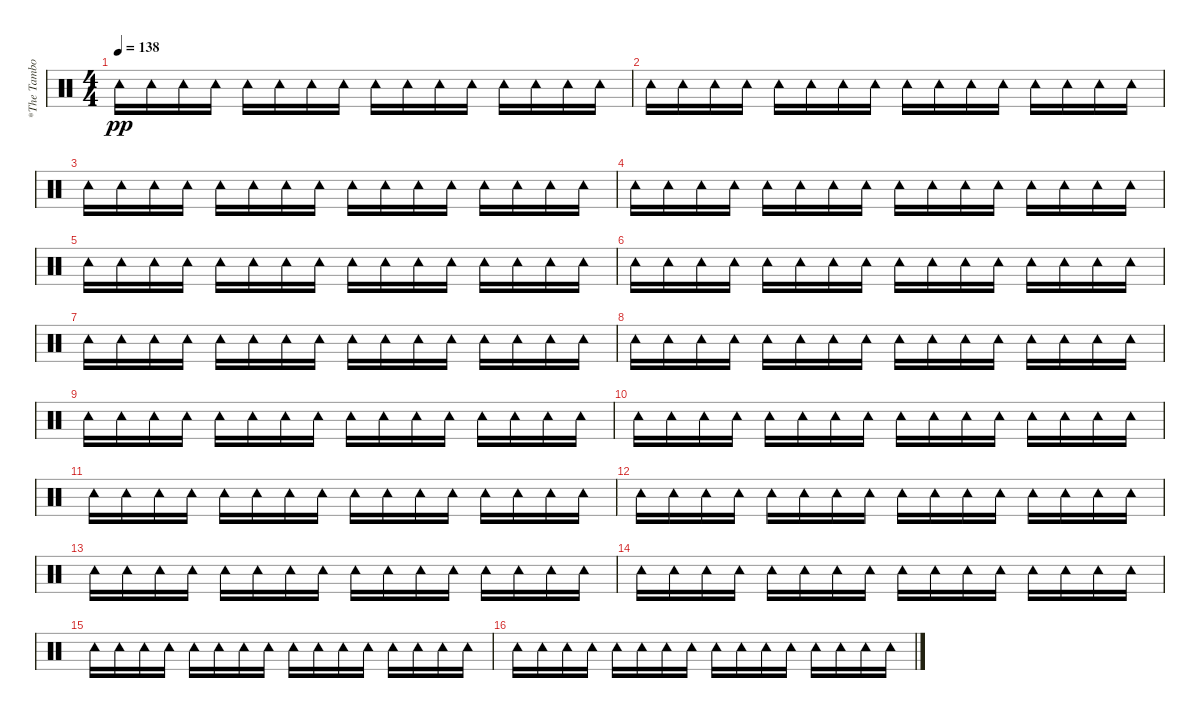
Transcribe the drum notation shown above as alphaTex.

\track ("*The Tambourine" "*The Tambo") {instrument percussion}
\staff {score}
\articulation defaults
\ts (4 4)
\tempo 138
\clef neutral
\ks c "Tambourine (hit)".16{dy pp} "Tambourine (hit)".16 "Tambourine (hit)".16 "Tambourine (hit)".16 "Tambourine (hit)".16 "Tambourine (hit)".16 "Tambourine (hit)".16 "Tambourine (hit)".16 "Tambourine (hit)".16 "Tambourine (hit)".16 "Tambourine (hit)".16 "Tambourine (hit)".16 "Tambourine (hit)".16 "Tambourine (hit)".16 "Tambourine (hit)".16 "Tambourine (hit)".16
|
"Tambourine (hit)".16 "Tambourine (hit)".16 "Tambourine (hit)".16 "Tambourine (hit)".16 "Tambourine (hit)".16 "Tambourine (hit)".16 "Tambourine (hit)".16 "Tambourine (hit)".16 "Tambourine (hit)".16 "Tambourine (hit)".16 "Tambourine (hit)".16 "Tambourine (hit)".16 "Tambourine (hit)".16 "Tambourine (hit)".16 "Tambourine (hit)".16 "Tambourine (hit)".16 |
"Tambourine (hit)".16 "Tambourine (hit)".16 "Tambourine (hit)".16 "Tambourine (hit)".16 "Tambourine (hit)".16 "Tambourine (hit)".16 "Tambourine (hit)".16 "Tambourine (hit)".16 "Tambourine (hit)".16 "Tambourine (hit)".16 "Tambourine (hit)".16 "Tambourine (hit)".16 "Tambourine (hit)".16 "Tambourine (hit)".16 "Tambourine (hit)".16 "Tambourine (hit)".16 |
"Tambourine (hit)".16 "Tambourine (hit)".16 "Tambourine (hit)".16 "Tambourine (hit)".16 "Tambourine (hit)".16 "Tambourine (hit)".16 "Tambourine (hit)".16 "Tambourine (hit)".16 "Tambourine (hit)".16 "Tambourine (hit)".16 "Tambourine (hit)".16 "Tambourine (hit)".16 "Tambourine (hit)".16 "Tambourine (hit)".16 "Tambourine (hit)".16 "Tambourine (hit)".16 |
"Tambourine (hit)".16 "Tambourine (hit)".16 "Tambourine (hit)".16 "Tambourine (hit)".16 "Tambourine (hit)".16 "Tambourine (hit)".16 "Tambourine (hit)".16 "Tambourine (hit)".16 "Tambourine (hit)".16 "Tambourine (hit)".16 "Tambourine (hit)".16 "Tambourine (hit)".16 "Tambourine (hit)".16 "Tambourine (hit)".16 "Tambourine (hit)".16 "Tambourine (hit)".16 |
"Tambourine (hit)".16 "Tambourine (hit)".16 "Tambourine (hit)".16 "Tambourine (hit)".16 "Tambourine (hit)".16 "Tambourine (hit)".16 "Tambourine (hit)".16 "Tambourine (hit)".16 "Tambourine (hit)".16 "Tambourine (hit)".16 "Tambourine (hit)".16 "Tambourine (hit)".16 "Tambourine (hit)".16 "Tambourine (hit)".16 "Tambourine (hit)".16 "Tambourine (hit)".16 |
"Tambourine (hit)".16 "Tambourine (hit)".16 "Tambourine (hit)".16 "Tambourine (hit)".16 "Tambourine (hit)".16 "Tambourine (hit)".16 "Tambourine (hit)".16 "Tambourine (hit)".16 "Tambourine (hit)".16 "Tambourine (hit)".16 "Tambourine (hit)".16 "Tambourine (hit)".16 "Tambourine (hit)".16 "Tambourine (hit)".16 "Tambourine (hit)".16 "Tambourine (hit)".16 |
"Tambourine (hit)".16 "Tambourine (hit)".16 "Tambourine (hit)".16 "Tambourine (hit)".16 "Tambourine (hit)".16 "Tambourine (hit)".16 "Tambourine (hit)".16 "Tambourine (hit)".16 "Tambourine (hit)".16 "Tambourine (hit)".16 "Tambourine (hit)".16 "Tambourine (hit)".16 "Tambourine (hit)".16 "Tambourine (hit)".16 "Tambourine (hit)".16 "Tambourine (hit)".16 |
"Tambourine (hit)".16 "Tambourine (hit)".16 "Tambourine (hit)".16 "Tambourine (hit)".16 "Tambourine (hit)".16 "Tambourine (hit)".16 "Tambourine (hit)".16 "Tambourine (hit)".16 "Tambourine (hit)".16 "Tambourine (hit)".16 "Tambourine (hit)".16 "Tambourine (hit)".16 "Tambourine (hit)".16 "Tambourine (hit)".16 "Tambourine (hit)".16 "Tambourine (hit)".16 |
"Tambourine (hit)".16 "Tambourine (hit)".16 "Tambourine (hit)".16 "Tambourine (hit)".16 "Tambourine (hit)".16 "Tambourine (hit)".16 "Tambourine (hit)".16 "Tambourine (hit)".16 "Tambourine (hit)".16 "Tambourine (hit)".16 "Tambourine (hit)".16 "Tambourine (hit)".16 "Tambourine (hit)".16 "Tambourine (hit)".16 "Tambourine (hit)".16 "Tambourine (hit)".16 |
"Tambourine (hit)".16 "Tambourine (hit)".16 "Tambourine (hit)".16 "Tambourine (hit)".16 "Tambourine (hit)".16 "Tambourine (hit)".16 "Tambourine (hit)".16 "Tambourine (hit)".16 "Tambourine (hit)".16 "Tambourine (hit)".16 "Tambourine (hit)".16 "Tambourine (hit)".16 "Tambourine (hit)".16 "Tambourine (hit)".16 "Tambourine (hit)".16 "Tambourine (hit)".16 |
"Tambourine (hit)".16 "Tambourine (hit)".16 "Tambourine (hit)".16 "Tambourine (hit)".16 "Tambourine (hit)".16 "Tambourine (hit)".16 "Tambourine (hit)".16 "Tambourine (hit)".16 "Tambourine (hit)".16 "Tambourine (hit)".16 "Tambourine (hit)".16 "Tambourine (hit)".16 "Tambourine (hit)".16 "Tambourine (hit)".16 "Tambourine (hit)".16 "Tambourine (hit)".16 |
"Tambourine (hit)".16 "Tambourine (hit)".16 "Tambourine (hit)".16 "Tambourine (hit)".16 "Tambourine (hit)".16 "Tambourine (hit)".16 "Tambourine (hit)".16 "Tambourine (hit)".16 "Tambourine (hit)".16 "Tambourine (hit)".16 "Tambourine (hit)".16 "Tambourine (hit)".16 "Tambourine (hit)".16 "Tambourine (hit)".16 "Tambourine (hit)".16 "Tambourine (hit)".16 |
"Tambourine (hit)".16 "Tambourine (hit)".16 "Tambourine (hit)".16 "Tambourine (hit)".16 "Tambourine (hit)".16 "Tambourine (hit)".16 "Tambourine (hit)".16 "Tambourine (hit)".16 "Tambourine (hit)".16 "Tambourine (hit)".16 "Tambourine (hit)".16 "Tambourine (hit)".16 "Tambourine (hit)".16 "Tambourine (hit)".16 "Tambourine (hit)".16 "Tambourine (hit)".16 |
"Tambourine (hit)".16 "Tambourine (hit)".16 "Tambourine (hit)".16 "Tambourine (hit)".16 "Tambourine (hit)".16 "Tambourine (hit)".16 "Tambourine (hit)".16 "Tambourine (hit)".16 "Tambourine (hit)".16 "Tambourine (hit)".16 "Tambourine (hit)".16 "Tambourine (hit)".16 "Tambourine (hit)".16 "Tambourine (hit)".16 "Tambourine (hit)".16 "Tambourine (hit)".16 |
"Tambourine (hit)".16 "Tambourine (hit)".16 "Tambourine (hit)".16 "Tambourine (hit)".16 "Tambourine (hit)".16 "Tambourine (hit)".16 "Tambourine (hit)".16 "Tambourine (hit)".16 "Tambourine (hit)".16 "Tambourine (hit)".16 "Tambourine (hit)".16 "Tambourine (hit)".16 "Tambourine (hit)".16 "Tambourine (hit)".16 "Tambourine (hit)".16 "Tambourine (hit)".16
